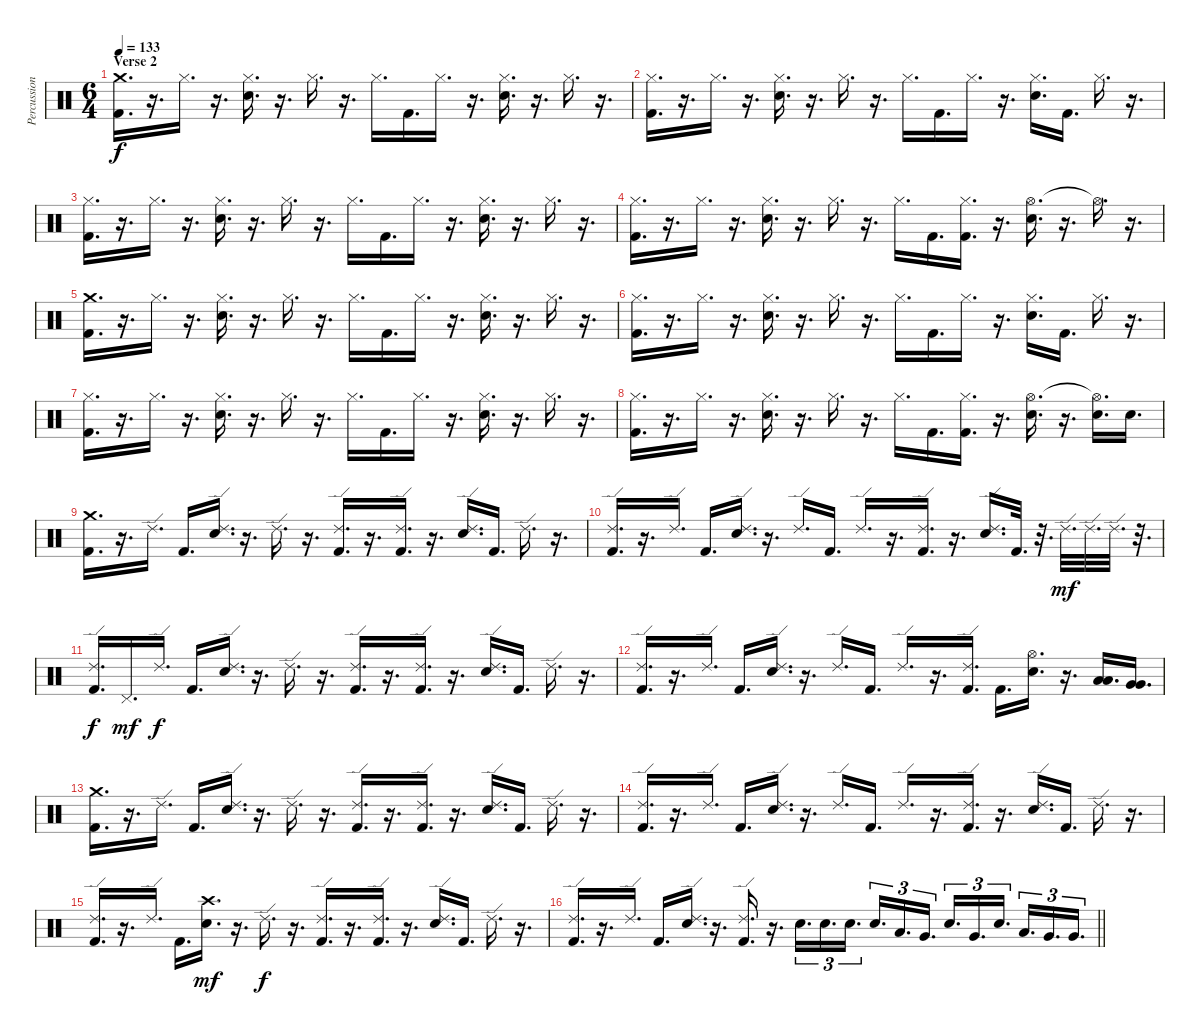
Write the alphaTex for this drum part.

\track ("Percussion" "Percussion") {instrument percussion}
\staff {score}
\articulation defaults
\ts (6 4)
\section ("" "Verse 2")
\tempo 133
\clef neutral
\ks c
("Crash medium (hit)" "Kick (hit) 2").16{d dy f} r.16{d} "Hi-Hat (closed)".16{d} r.16{d} ("Hi-Hat (closed)" "Electric Snare (hit)").16{d} r.16{d} "Hi-Hat (closed)".16{d} r.16{d} "Hi-Hat (closed)".16{d} "Kick (hit) 2".16{d} "Hi-Hat (closed)".16{d} r.16{d} ("Hi-Hat (closed)" "Electric Snare (hit)").16{d} r.16{d} "Hi-Hat (closed)".16{d} r.16{d} |
("Hi-Hat (closed)" "Kick (hit) 2").16{d} r.16{d} "Hi-Hat (closed)".16{d} r.16{d} ("Hi-Hat (closed)" "Electric Snare (hit)").16{d} r.16{d} "Hi-Hat (closed)".16{d} r.16{d} "Hi-Hat (closed)".16{d} "Kick (hit) 2".16{d} "Hi-Hat (closed)".16{d} r.16{d} ("Hi-Hat (closed)" "Electric Snare (hit)").16{d} "Kick (hit) 2".16{d} "Hi-Hat (closed)".16{d} r.16{d} |
("Hi-Hat (closed)" "Kick (hit) 2").16{d} r.16{d} "Hi-Hat (closed)".16{d} r.16{d} ("Hi-Hat (closed)" "Electric Snare (hit)").16{d} r.16{d} "Hi-Hat (closed)".16{d} r.16{d} "Hi-Hat (closed)".16{d} "Kick (hit) 2".16{d} "Hi-Hat (closed)".16{d} r.16{d} ("Hi-Hat (closed)" "Electric Snare (hit)").16{d} r.16{d} "Hi-Hat (closed)".16{d} r.16{d} |
("Hi-Hat (closed)" "Kick (hit) 2").16{d} r.16{d} "Hi-Hat (closed)".16{d} r.16{d} ("Hi-Hat (closed)" "Electric Snare (hit)").16{d} r.16{d} "Hi-Hat (closed)".16{d} r.16{d} "Hi-Hat (closed)".16{d} "Kick (hit) 2".16{d} ("Hi-Hat (closed)" "Kick (hit) 2").16{d} r.16{d} ("Hi-Hat (open)" "Electric Snare (hit)").16{d} r.16{d} "Hi-Hat (open)"{t}.16{d} r.16{d} |
("Crash medium (hit)" "Kick (hit) 2").16{d} r.16{d} "Hi-Hat (closed)".16{d} r.16{d} ("Hi-Hat (closed)" "Electric Snare (hit)").16{d} r.16{d} "Hi-Hat (closed)".16{d} r.16{d} "Hi-Hat (closed)".16{d} "Kick (hit) 2".16{d} "Hi-Hat (closed)".16{d} r.16{d} ("Hi-Hat (closed)" "Electric Snare (hit)").16{d} r.16{d} "Hi-Hat (closed)".16{d} r.16{d} |
("Hi-Hat (closed)" "Kick (hit) 2").16{d} r.16{d} "Hi-Hat (closed)".16{d} r.16{d} ("Hi-Hat (closed)" "Electric Snare (hit)").16{d} r.16{d} "Hi-Hat (closed)".16{d} r.16{d} "Hi-Hat (closed)".16{d} "Kick (hit) 2".16{d} "Hi-Hat (closed)".16{d} r.16{d} ("Hi-Hat (closed)" "Electric Snare (hit)").16{d} "Kick (hit) 2".16{d} "Hi-Hat (closed)".16{d} r.16{d} |
("Hi-Hat (closed)" "Kick (hit) 2").16{d} r.16{d} "Hi-Hat (closed)".16{d} r.16{d} ("Hi-Hat (closed)" "Electric Snare (hit)").16{d} r.16{d} "Hi-Hat (closed)".16{d} r.16{d} "Hi-Hat (closed)".16{d} "Kick (hit) 2".16{d} "Hi-Hat (closed)".16{d} r.16{d} ("Hi-Hat (closed)" "Electric Snare (hit)").16{d} r.16{d} "Hi-Hat (closed)".16{d} r.16{d} |
("Hi-Hat (closed)" "Kick (hit) 2").16{d} r.16{d} "Hi-Hat (closed)".16{d} r.16{d} ("Hi-Hat (closed)" "Electric Snare (hit)").16{d} r.16{d} "Hi-Hat (closed)".16{d} r.16{d} "Hi-Hat (closed)".16{d} "Kick (hit) 2".16{d} ("Hi-Hat (closed)" "Kick (hit) 2").16{d} r.16{d} ("Hi-Hat (open)" "Electric Snare (hit)").16{d} r.16{d} ("Hi-Hat (open)"{t} "Electric Snare (hit)").16{d} "Electric Snare (hit)".16{d} |
("Crash medium (hit)" "Kick (hit) 2").16{d} r.16{d} "Ride (edge) 2".16{d} "Kick (hit) 2".16{d} ("Ride (edge) 2" "Electric Snare (hit)").16{d} r.16{d} "Ride (edge) 2".16{d} r.16{d} ("Ride (edge) 2" "Kick (hit) 2").16{d} r.16{d} ("Ride (edge) 2" "Kick (hit) 2").16{d} r.16{d} ("Ride (edge) 2" "Electric Snare (hit)").16{d} "Kick (hit) 2".16{d} "Ride (edge) 2".16{d} r.16{d} |
("Ride (edge) 2" "Kick (hit) 2").16{d} r.16{d} "Ride (edge) 2".16{d} "Kick (hit) 2".16{d} ("Ride (edge) 2" "Electric Snare (hit)").16{d} r.16{d} "Ride (edge) 2".16{d} "Kick (hit) 2".16{d} "Ride (edge) 2".16{d} r.16{d} ("Ride (edge) 2" "Kick (hit) 2").16{d} r.16{d} ("Ride (edge) 2" "Electric Snare (hit)").16{d} "Kick (hit) 2".32{d} r.32{d} "Ride (edge) 2".32{d dy mf} "Ride (edge) 2".32{d} "Ride (edge) 2".32{d} r.32{d} |
("Ride (edge) 2" "Kick (hit) 2").16{d dy f} "Pedal Hi-Hat (hit)".16{d dy mf} "Ride (edge) 2".16{d dy f} "Kick (hit) 2".16{d} ("Ride (edge) 2" "Electric Snare (hit)").16{d} r.16{d} "Ride (edge) 2".16{d} r.16{d} ("Ride (edge) 2" "Kick (hit) 2").16{d} r.16{d} ("Ride (edge) 2" "Kick (hit) 2").16{d} r.16{d} ("Ride (edge) 2" "Electric Snare (hit)").16{d} "Kick (hit) 2".16{d} "Ride (edge) 2".16{d} r.16{d} |
("Ride (edge) 2" "Kick (hit) 2").16{d} r.16{d} "Ride (edge) 2".16{d} "Kick (hit) 2".16{d} ("Ride (edge) 2" "Electric Snare (hit)").16{d} r.16{d} "Ride (edge) 2".16{d} "Kick (hit) 2".16{d} "Ride (edge) 2".16{d} r.16{d} ("Ride (edge) 2" "Kick (hit) 2").16{d} "Kick (hit) 2".16{d} ("Hi-Hat (open)" "Electric Snare (hit)").16{d} r.16{d} ("Low Tom (hit)" "Low Tom (hit)").16{d} ("Very Low Tom (hit)" "Very Low Tom (hit)").16{d} |
("Crash medium (hit)" "Kick (hit) 2").16{d} r.16{d} "Ride (edge) 2".16{d} "Kick (hit) 2".16{d} ("Ride (edge) 2" "Electric Snare (hit)").16{d} r.16{d} "Ride (edge) 2".16{d} r.16{d} ("Ride (edge) 2" "Kick (hit) 2").16{d} r.16{d} ("Ride (edge) 2" "Kick (hit) 2").16{d} r.16{d} ("Ride (edge) 2" "Electric Snare (hit)").16{d} "Kick (hit) 2".16{d} "Ride (edge) 2".16{d} r.16{d} |
("Ride (edge) 2" "Kick (hit) 2").16{d} r.16{d} "Ride (edge) 2".16{d} "Kick (hit) 2".16{d} ("Ride (edge) 2" "Electric Snare (hit)").16{d} r.16{d} "Ride (edge) 2".16{d} "Kick (hit) 2".16{d} "Ride (edge) 2".16{d} r.16{d} ("Ride (edge) 2" "Kick (hit) 2").16{d} r.16{d} ("Ride (edge) 2" "Electric Snare (hit)").16{d} "Kick (hit) 2".16{d} "Ride (edge) 2".16{d} r.16{d} |
("Ride (edge) 2" "Kick (hit) 2").16{d} r.16{d} "Ride (edge) 2".16{d} "Kick (hit) 2".16{d} ("Crash high (hit)" "Electric Snare (hit)").16{d dy mf} r.16{d} "Ride (edge) 2".16{d dy f} r.16{d} ("Ride (edge) 2" "Kick (hit) 2").16{d} r.16{d} ("Ride (edge) 2" "Kick (hit) 2").16{d} r.16{d} ("Ride (edge) 2" "Electric Snare (hit)").16{d} "Kick (hit) 2".16{d} "Ride (edge) 2".16{d} r.16{d} |
\barLineRight lightlight
("Ride (edge) 2" "Kick (hit) 2").16{d} r.16{d} "Ride (edge) 2".16{d} "Kick (hit) 2".16{d} ("Ride (edge) 2" "Electric Snare (hit)").16{d} r.16{d} ("Ride (edge) 2" "Kick (hit) 2").16{d} r.16{d} "Electric Snare (hit)".16{d tu (3 2)} "Electric Snare (hit)".16{d tu (3 2)} "Electric Snare (hit)".16{d tu (3 2)} "Electric Snare (hit)".16{d tu (3 2)} "Low Tom (hit)".16{d tu (3 2)} "Very Low Tom (hit)".16{d tu (3 2)} "Electric Snare (hit)".16{d tu (3 2)} "Very Low Tom (hit)".16{d tu (3 2)} "Electric Snare (hit)".16{d tu (3 2)} "Low Tom (hit)".16{d tu (3 2)} "Very Low Tom (hit)".16{d tu (3 2)} "Very Low Tom (hit)".16{d tu (3 2)}
